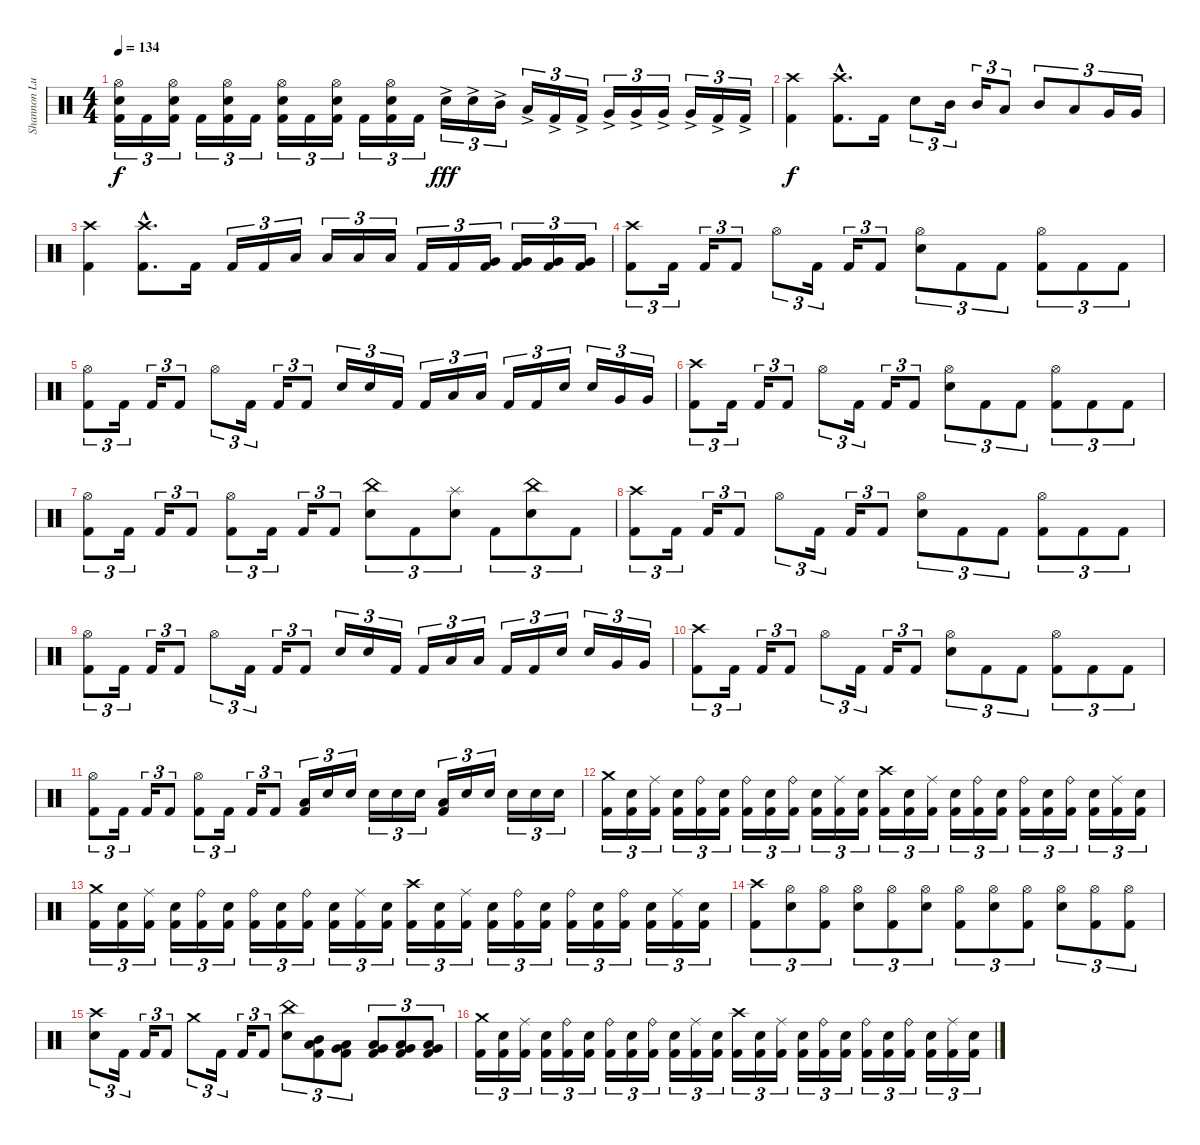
\track ("Shannon Lucas [Drums (Since 2007)]" "Shannon Lu") {instrument percussion}
\staff {score}
\articulation defaults
\ts (4 4)
\tempo 134
\clef neutral
\ks c
("Hi-Hat (open)" "Snare (hit) 2" "Kick (hit) 2").16{tu (3 2) dy f} "Kick (hit) 2".16{tu (3 2)} ("Hi-Hat (open)" "Snare (hit) 2" "Kick (hit) 2").16{tu (3 2)} "Kick (hit) 2".16{tu (3 2)} ("Hi-Hat (open)" "Snare (hit) 2" "Kick (hit) 2").16{tu (3 2)} "Kick (hit) 2".16{tu (3 2)} ("Hi-Hat (open)" "Snare (hit) 2" "Kick (hit) 2").16{tu (3 2)} "Kick (hit) 2".16{tu (3 2)} ("Hi-Hat (open)" "Snare (hit) 2" "Kick (hit) 2").16{tu (3 2)} "Kick (hit) 2".16{tu (3 2)} ("Hi-Hat (open)" "Snare (hit) 2" "Kick (hit) 2").16{tu (3 2)} "Kick (hit) 2".16{tu (3 2)} "Snare (hit) 2"{ac}.16{tu (3 2) dy fff} "Snare (hit) 2"{ac}.16{tu (3 2)} "Mid Tom (hit)"{ac}.16{tu (3 2)} "Low Tom (hit)"{ac}.16{tu (3 2)} "Kick (hit) 2"{ac}.16{tu (3 2)} "Kick (hit) 2"{ac}.16{tu (3 2)} "Very Low Tom (hit)"{ac}.16{tu (3 2)} "Very Low Tom (hit)"{ac}.16{tu (3 2)} "Very Low Tom (hit)"{ac}.16{tu (3 2)} "Very Low Tom (hit)"{ac}.16{tu (3 2)} "Kick (hit) 2"{ac}.16{tu (3 2)} "Kick (hit) 2"{ac}.16{tu (3 2)} |
("Crash high (hit)" "Kick (hit) 2").4{dy f} ("Crash high (hit)"{hac} "Kick (hit) 2"{hac}).8{d} "Kick (hit) 2".16 "Snare (hit) 2".8{tu (3 2)} "Mid Tom (hit)".16{tu (3 2)} "Mid Tom (hit)".16{tu (3 2)} "Low Tom (hit)".8{tu (3 2)} "Mid Tom (hit)".8{tu (3 2)} "Low Tom (hit)".8{tu (3 2)} "Very Low Tom (hit)".16{tu (3 2)} "Very Low Tom (hit)".16{tu (3 2)} |
("Crash high (hit)" "Kick (hit) 2").4 ("Crash high (hit)"{hac} "Kick (hit) 2"{hac}).8{d} "Kick (hit) 2".16 "Kick (hit) 2".16{tu (3 2)} "Kick (hit) 2".16{tu (3 2)} "Low Tom (hit)".16{tu (3 2)} "Low Tom (hit)".16{tu (3 2)} "Low Tom (hit)".16{tu (3 2)} "Low Tom (hit)".16{tu (3 2)} "Kick (hit) 2".16{tu (3 2)} "Kick (hit) 2".16{tu (3 2)} ("Very Low Tom (hit)" "Kick (hit) 2").16{tu (3 2)} ("Very Low Tom (hit)" "Kick (hit) 2").16{tu (3 2)} ("Very Low Tom (hit)" "Kick (hit) 2").16{tu (3 2)} ("Very Low Tom (hit)" "Kick (hit) 2").16{tu (3 2)} |
("Crash high (hit)" "Kick (hit) 2").8{tu (3 2)} "Kick (hit) 2".16{tu (3 2)} "Kick (hit) 2".16{tu (3 2)} "Kick (hit) 2".8{tu (3 2)} "Hi-Hat (open)".8{tu (3 2)} "Kick (hit) 2".16{tu (3 2)} "Kick (hit) 2".16{tu (3 2)} "Kick (hit) 2".8{tu (3 2)} ("Hi-Hat (open)" "Snare (hit) 2").8{tu (3 2)} "Kick (hit) 2".8{tu (3 2)} "Kick (hit) 2".8{tu (3 2)} ("Hi-Hat (open)" "Kick (hit) 2").8{tu (3 2)} "Kick (hit) 2".8{tu (3 2)} "Kick (hit) 2".8{tu (3 2)} |
("Hi-Hat (open)" "Kick (hit) 2").8{tu (3 2)} "Kick (hit) 2".16{tu (3 2)} "Kick (hit) 2".16{tu (3 2)} "Kick (hit) 2".8{tu (3 2)} "Hi-Hat (open)".8{tu (3 2)} "Kick (hit) 2".16{tu (3 2)} "Kick (hit) 2".16{tu (3 2)} "Kick (hit) 2".8{tu (3 2)} "Snare (hit) 2".16{tu (3 2)} "Snare (hit) 2".16{tu (3 2)} "Kick (hit) 2".16{tu (3 2)} "Kick (hit) 2".16{tu (3 2)} "Low Tom (hit)".16{tu (3 2)} "Low Tom (hit)".16{tu (3 2)} "Kick (hit) 2".16{tu (3 2)} "Kick (hit) 2".16{tu (3 2)} "Snare (hit) 2".16{tu (3 2)} "Snare (hit) 2".16{tu (3 2)} "Very Low Tom (hit)".16{tu (3 2)} "Very Low Tom (hit)".16{tu (3 2)} |
("Crash high (hit)" "Kick (hit) 2").8{tu (3 2)} "Kick (hit) 2".16{tu (3 2)} "Kick (hit) 2".16{tu (3 2)} "Kick (hit) 2".8{tu (3 2)} "Hi-Hat (open)".8{tu (3 2)} "Kick (hit) 2".16{tu (3 2)} "Kick (hit) 2".16{tu (3 2)} "Kick (hit) 2".8{tu (3 2)} ("Hi-Hat (open)" "Snare (hit) 2").8{tu (3 2)} "Kick (hit) 2".8{tu (3 2)} "Kick (hit) 2".8{tu (3 2)} ("Hi-Hat (open)" "Kick (hit) 2").8{tu (3 2)} "Kick (hit) 2".8{tu (3 2)} "Kick (hit) 2".8{tu (3 2)} |
("Hi-Hat (open)" "Kick (hit) 2").8{tu (3 2)} "Kick (hit) 2".16{tu (3 2)} "Kick (hit) 2".16{tu (3 2)} "Kick (hit) 2".8{tu (3 2)} ("Hi-Hat (open)" "Kick (hit) 2").8{tu (3 2)} "Kick (hit) 2".16{tu (3 2)} "Kick (hit) 2".16{tu (3 2)} "Kick (hit) 2".8{tu (3 2)} ("China (hit)" "Snare (hit) 2").8{tu (3 2)} "Kick (hit) 2".8{tu (3 2)} ("Splash (hit)" "Snare (hit) 2").8{tu (3 2)} "Kick (hit) 2".8{tu (3 2)} ("China (hit)" "Snare (hit) 2").8{tu (3 2)} "Kick (hit) 2".8{tu (3 2)} |
("Crash high (hit)" "Kick (hit) 2").8{tu (3 2)} "Kick (hit) 2".16{tu (3 2)} "Kick (hit) 2".16{tu (3 2)} "Kick (hit) 2".8{tu (3 2)} "Hi-Hat (open)".8{tu (3 2)} "Kick (hit) 2".16{tu (3 2)} "Kick (hit) 2".16{tu (3 2)} "Kick (hit) 2".8{tu (3 2)} ("Hi-Hat (open)" "Snare (hit) 2").8{tu (3 2)} "Kick (hit) 2".8{tu (3 2)} "Kick (hit) 2".8{tu (3 2)} ("Hi-Hat (open)" "Kick (hit) 2").8{tu (3 2)} "Kick (hit) 2".8{tu (3 2)} "Kick (hit) 2".8{tu (3 2)} |
("Hi-Hat (open)" "Kick (hit) 2").8{tu (3 2)} "Kick (hit) 2".16{tu (3 2)} "Kick (hit) 2".16{tu (3 2)} "Kick (hit) 2".8{tu (3 2)} "Hi-Hat (open)".8{tu (3 2)} "Kick (hit) 2".16{tu (3 2)} "Kick (hit) 2".16{tu (3 2)} "Kick (hit) 2".8{tu (3 2)} "Snare (hit) 2".16{tu (3 2)} "Snare (hit) 2".16{tu (3 2)} "Kick (hit) 2".16{tu (3 2)} "Kick (hit) 2".16{tu (3 2)} "Low Tom (hit)".16{tu (3 2)} "Low Tom (hit)".16{tu (3 2)} "Kick (hit) 2".16{tu (3 2)} "Kick (hit) 2".16{tu (3 2)} "Snare (hit) 2".16{tu (3 2)} "Snare (hit) 2".16{tu (3 2)} "Very Low Tom (hit)".16{tu (3 2)} "Very Low Tom (hit)".16{tu (3 2)} |
("Crash high (hit)" "Kick (hit) 2").8{tu (3 2)} "Kick (hit) 2".16{tu (3 2)} "Kick (hit) 2".16{tu (3 2)} "Kick (hit) 2".8{tu (3 2)} "Hi-Hat (open)".8{tu (3 2)} "Kick (hit) 2".16{tu (3 2)} "Kick (hit) 2".16{tu (3 2)} "Kick (hit) 2".8{tu (3 2)} ("Hi-Hat (open)" "Snare (hit) 2").8{tu (3 2)} "Kick (hit) 2".8{tu (3 2)} "Kick (hit) 2".8{tu (3 2)} ("Hi-Hat (open)" "Kick (hit) 2").8{tu (3 2)} "Kick (hit) 2".8{tu (3 2)} "Kick (hit) 2".8{tu (3 2)} |
("Hi-Hat (open)" "Kick (hit) 2").8{tu (3 2)} "Kick (hit) 2".16{tu (3 2)} "Kick (hit) 2".16{tu (3 2)} "Kick (hit) 2".8{tu (3 2)} ("Hi-Hat (open)" "Kick (hit) 2").8{tu (3 2)} "Kick (hit) 2".16{tu (3 2)} "Kick (hit) 2".16{tu (3 2)} "Kick (hit) 2".8{tu (3 2)} ("Low Tom (hit)" "Kick (hit) 2").16{tu (3 2)} "Snare (hit) 2".16{tu (3 2)} "Snare (hit) 2".16{tu (3 2)} "Snare (hit) 2".16{tu (3 2)} "Snare (hit) 2".16{tu (3 2)} "Snare (hit) 2".16{tu (3 2)} ("Low Tom (hit)" "Kick (hit) 2").16{tu (3 2)} "Snare (hit) 2".16{tu (3 2)} "Snare (hit) 2".16{tu (3 2)} "Snare (hit) 2".16{tu (3 2)} "Snare (hit) 2".16{tu (3 2)} "Snare (hit) 2".16{tu (3 2)} |
("Crash medium (hit)" "Kick (hit) 2").16{tu (3 2)} ("Snare (hit) 2" "Kick (hit) 2").16{tu (3 2)} ("Ride (middle)" "Kick (hit) 2").16{tu (3 2)} ("Snare (hit) 2" "Kick (hit) 2").16{tu (3 2)} ("Ride (bell)" "Kick (hit) 2").16{tu (3 2)} ("Snare (hit) 2" "Kick (hit) 2").16{tu (3 2)} ("Ride (bell)" "Kick (hit) 2").16{tu (3 2)} ("Snare (hit) 2" "Kick (hit) 2").16{tu (3 2)} ("Ride (bell)" "Kick (hit) 2").16{tu (3 2)} ("Snare (hit) 2" "Kick (hit) 2").16{tu (3 2)} ("Ride (middle)" "Kick (hit) 2").16{tu (3 2)} ("Snare (hit) 2" "Kick (hit) 2").16{tu (3 2)} ("Crash high (hit)" "Kick (hit) 2").16{tu (3 2)} ("Snare (hit) 2" "Kick (hit) 2").16{tu (3 2)} ("Ride (middle)" "Kick (hit) 2").16{tu (3 2)} ("Snare (hit) 2" "Kick (hit) 2").16{tu (3 2)} ("Ride (bell)" "Kick (hit) 2").16{tu (3 2)} ("Snare (hit) 2" "Kick (hit) 2").16{tu (3 2)} ("Ride (bell)" "Kick (hit) 2").16{tu (3 2)} ("Snare (hit) 2" "Kick (hit) 2").16{tu (3 2)} ("Ride (bell)" "Kick (hit) 2").16{tu (3 2)} ("Snare (hit) 2" "Kick (hit) 2").16{tu (3 2)} ("Ride (middle)" "Kick (hit) 2").16{tu (3 2)} ("Snare (hit) 2" "Kick (hit) 2").16{tu (3 2)} |
("Crash medium (hit)" "Kick (hit) 2").16{tu (3 2)} ("Snare (hit) 2" "Kick (hit) 2").16{tu (3 2)} ("Ride (middle)" "Kick (hit) 2").16{tu (3 2)} ("Snare (hit) 2" "Kick (hit) 2").16{tu (3 2)} ("Ride (bell)" "Kick (hit) 2").16{tu (3 2)} ("Snare (hit) 2" "Kick (hit) 2").16{tu (3 2)} ("Ride (bell)" "Kick (hit) 2").16{tu (3 2)} ("Snare (hit) 2" "Kick (hit) 2").16{tu (3 2)} ("Ride (bell)" "Kick (hit) 2").16{tu (3 2)} ("Snare (hit) 2" "Kick (hit) 2").16{tu (3 2)} ("Ride (middle)" "Kick (hit) 2").16{tu (3 2)} ("Snare (hit) 2" "Kick (hit) 2").16{tu (3 2)} ("Crash high (hit)" "Kick (hit) 2").16{tu (3 2)} ("Snare (hit) 2" "Kick (hit) 2").16{tu (3 2)} ("Ride (middle)" "Kick (hit) 2").16{tu (3 2)} ("Snare (hit) 2" "Kick (hit) 2").16{tu (3 2)} ("Ride (bell)" "Kick (hit) 2").16{tu (3 2)} ("Snare (hit) 2" "Kick (hit) 2").16{tu (3 2)} ("Ride (bell)" "Kick (hit) 2").16{tu (3 2)} ("Snare (hit) 2" "Kick (hit) 2").16{tu (3 2)} ("Ride (bell)" "Kick (hit) 2").16{tu (3 2)} ("Snare (hit) 2" "Kick (hit) 2").16{tu (3 2)} ("Ride (middle)" "Kick (hit) 2").16{tu (3 2)} ("Snare (hit) 2" "Kick (hit) 2").16{tu (3 2)} |
("Crash high (hit)" "Kick (hit) 2").8{tu (3 2)} ("Hi-Hat (open)" "Snare (hit) 2").8{tu (3 2)} ("Hi-Hat (open)" "Kick (hit) 2").8{tu (3 2)} ("Hi-Hat (open)" "Snare (hit) 2").8{tu (3 2)} ("Hi-Hat (open)" "Kick (hit) 2").8{tu (3 2)} ("Hi-Hat (open)" "Snare (hit) 2").8{tu (3 2)} ("Hi-Hat (open)" "Kick (hit) 2").8{tu (3 2)} ("Hi-Hat (open)" "Snare (hit) 2").8{tu (3 2)} ("Hi-Hat (open)" "Kick (hit) 2").8{tu (3 2)} ("Hi-Hat (open)" "Snare (hit) 2").8{tu (3 2)} ("Hi-Hat (open)" "Kick (hit) 2").8{tu (3 2)} ("Hi-Hat (open)" "Kick (hit) 2").8{tu (3 2)} |
("Crash high (hit)" "Snare (hit) 2").8{tu (3 2)} "Kick (hit) 2".16{tu (3 2)} "Kick (hit) 2".16{tu (3 2)} "Kick (hit) 2".8{tu (3 2)} "Crash medium (hit)".8{tu (3 2)} "Kick (hit) 2".16{tu (3 2)} "Kick (hit) 2".16{tu (3 2)} "Kick (hit) 2".8{tu (3 2)} ("China (hit)" "Snare (hit) 2").8{tu (3 2)} ("Mid Tom (hit)" "Low Tom (hit)" "Kick (hit) 2").8{tu (3 2)} ("Low Tom (hit)" "Very Low Tom (hit)" "Kick (hit) 2").8{tu (3 2)} ("Low Floor Tom (hit)" "Very Low Tom (hit)" "Kick (hit) 2").8{tu (3 2)} ("Low Floor Tom (hit)" "Very Low Tom (hit)" "Kick (hit) 2").8{tu (3 2)} ("Low Floor Tom (hit)" "Very Low Tom (hit)" "Kick (hit) 2").8{tu (3 2)} |
("Crash medium (hit)" "Kick (hit) 2").16{tu (3 2)} ("Snare (hit) 2" "Kick (hit) 2").16{tu (3 2)} ("Ride (middle)" "Kick (hit) 2").16{tu (3 2)} ("Snare (hit) 2" "Kick (hit) 2").16{tu (3 2)} ("Ride (bell)" "Kick (hit) 2").16{tu (3 2)} ("Snare (hit) 2" "Kick (hit) 2").16{tu (3 2)} ("Ride (bell)" "Kick (hit) 2").16{tu (3 2)} ("Snare (hit) 2" "Kick (hit) 2").16{tu (3 2)} ("Ride (bell)" "Kick (hit) 2").16{tu (3 2)} ("Snare (hit) 2" "Kick (hit) 2").16{tu (3 2)} ("Ride (middle)" "Kick (hit) 2").16{tu (3 2)} ("Snare (hit) 2" "Kick (hit) 2").16{tu (3 2)} ("Crash high (hit)" "Kick (hit) 2").16{tu (3 2)} ("Snare (hit) 2" "Kick (hit) 2").16{tu (3 2)} ("Ride (middle)" "Kick (hit) 2").16{tu (3 2)} ("Snare (hit) 2" "Kick (hit) 2").16{tu (3 2)} ("Ride (bell)" "Kick (hit) 2").16{tu (3 2)} ("Snare (hit) 2" "Kick (hit) 2").16{tu (3 2)} ("Ride (bell)" "Kick (hit) 2").16{tu (3 2)} ("Snare (hit) 2" "Kick (hit) 2").16{tu (3 2)} ("Ride (bell)" "Kick (hit) 2").16{tu (3 2)} ("Snare (hit) 2" "Kick (hit) 2").16{tu (3 2)} ("Ride (middle)" "Kick (hit) 2").16{tu (3 2)} ("Snare (hit) 2" "Kick (hit) 2").16{tu (3 2)}
